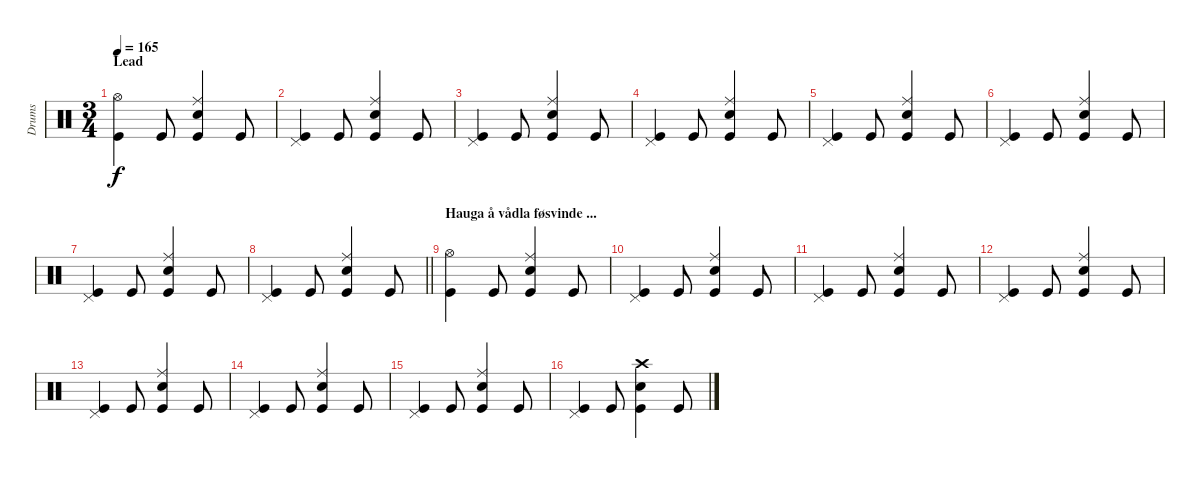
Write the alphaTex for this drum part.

\track ("Drums" "Drums") {instrument percussion}
\staff {score}
\articulation defaults
\ts (3 4)
\section ("" "Lead")
\tempo 165
\clef neutral
\ks c
("Hi-Hat (open)" "Kick (hit)").4{dy f} "Kick (hit)".8 ("Ride (middle)" "Snare (hit) 2" "Kick (hit)").4 "Kick (hit)".8 |
("Pedal Hi-Hat (hit)" "Kick (hit)").4 "Kick (hit)".8 ("Ride (middle)" "Snare (hit) 2" "Kick (hit)").4 "Kick (hit)".8 |
("Pedal Hi-Hat (hit)" "Kick (hit)").4 "Kick (hit)".8 ("Ride (middle)" "Snare (hit) 2" "Kick (hit)").4 "Kick (hit)".8 |
("Pedal Hi-Hat (hit)" "Kick (hit)").4 "Kick (hit)".8 ("Ride (middle)" "Snare (hit) 2" "Kick (hit)").4 "Kick (hit)".8 |
("Pedal Hi-Hat (hit)" "Kick (hit)").4 "Kick (hit)".8 ("Ride (middle)" "Snare (hit) 2" "Kick (hit)").4 "Kick (hit)".8 |
("Pedal Hi-Hat (hit)" "Kick (hit)").4 "Kick (hit)".8 ("Ride (middle)" "Snare (hit) 2" "Kick (hit)").4 "Kick (hit)".8 |
("Pedal Hi-Hat (hit)" "Kick (hit)").4 "Kick (hit)".8 ("Ride (middle)" "Snare (hit) 2" "Kick (hit)").4 "Kick (hit)".8 |
\barLineRight lightlight
("Pedal Hi-Hat (hit)" "Kick (hit)").4 "Kick (hit)".8 ("Ride (middle)" "Snare (hit) 2" "Kick (hit)").4 "Kick (hit)".8 |
\section ("" "Hauga å vådla føsvinde ...")
("Hi-Hat (open)" "Kick (hit)").4 "Kick (hit)".8 ("Ride (middle)" "Snare (hit) 2" "Kick (hit)").4 "Kick (hit)".8 |
("Pedal Hi-Hat (hit)" "Kick (hit)").4 "Kick (hit)".8 ("Ride (middle)" "Snare (hit) 2" "Kick (hit)").4 "Kick (hit)".8 |
("Pedal Hi-Hat (hit)" "Kick (hit)").4 "Kick (hit)".8 ("Ride (middle)" "Snare (hit) 2" "Kick (hit)").4 "Kick (hit)".8 |
("Pedal Hi-Hat (hit)" "Kick (hit)").4 "Kick (hit)".8 ("Ride (middle)" "Snare (hit) 2" "Kick (hit)").4 "Kick (hit)".8 |
("Pedal Hi-Hat (hit)" "Kick (hit)").4 "Kick (hit)".8 ("Ride (middle)" "Snare (hit) 2" "Kick (hit)").4 "Kick (hit)".8 |
("Pedal Hi-Hat (hit)" "Kick (hit)").4 "Kick (hit)".8 ("Ride (middle)" "Snare (hit) 2" "Kick (hit)").4 "Kick (hit)".8 |
("Pedal Hi-Hat (hit)" "Kick (hit)").4 "Kick (hit)".8 ("Ride (middle)" "Snare (hit) 2" "Kick (hit)").4 "Kick (hit)".8 |
("Pedal Hi-Hat (hit)" "Kick (hit)").4 "Kick (hit)".8 ("Crash high (hit)" "Snare (hit) 2" "Kick (hit)").4 "Kick (hit)".8
